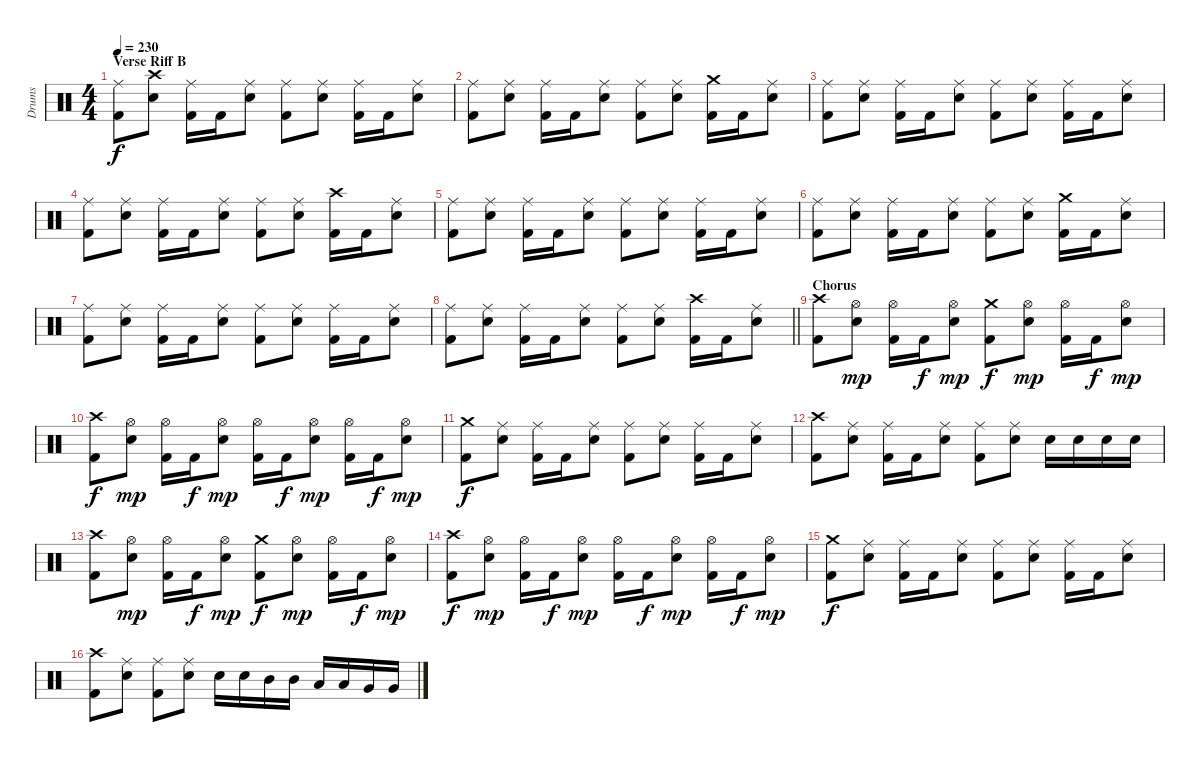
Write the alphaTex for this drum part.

\track ("Drums" "Drums") {instrument percussion}
\staff {score}
\articulation defaults
\ts (4 4)
\section ("" "Verse Riff B")
\tempo 230
\clef neutral
\ks c
("Ride (middle)" "Kick (hit) 2").8{dy f} ("Crash high (hit)" "Snare (hit) 2").8 ("Ride (middle)" "Kick (hit) 2").16 "Kick (hit) 2".16 ("Ride (middle)" "Snare (hit) 2").8 ("Ride (middle)" "Kick (hit) 2").8 ("Ride (middle)" "Snare (hit) 2").8 ("Ride (middle)" "Kick (hit) 2").16 "Kick (hit) 2".16 ("Ride (middle)" "Snare (hit) 2").8 |
("Ride (middle)" "Kick (hit) 2").8 ("Ride (middle)" "Snare (hit) 2").8 ("Ride (middle)" "Kick (hit) 2").16 "Kick (hit) 2".16 ("Ride (middle)" "Snare (hit) 2").8 ("Ride (middle)" "Kick (hit) 2").8 ("Ride (middle)" "Snare (hit) 2").8 ("Crash medium (hit)" "Kick (hit) 2").16 "Kick (hit) 2".16 ("Ride (middle)" "Snare (hit) 2").8 |
("Ride (middle)" "Kick (hit) 2").8 ("Ride (middle)" "Snare (hit) 2").8 ("Ride (middle)" "Kick (hit) 2").16 "Kick (hit) 2".16 ("Ride (middle)" "Snare (hit) 2").8 ("Ride (middle)" "Kick (hit) 2").8 ("Ride (middle)" "Snare (hit) 2").8 ("Ride (middle)" "Kick (hit) 2").16 "Kick (hit) 2".16 ("Ride (middle)" "Snare (hit) 2").8 |
("Ride (middle)" "Kick (hit) 2").8 ("Ride (middle)" "Snare (hit) 2").8 ("Ride (middle)" "Kick (hit) 2").16 "Kick (hit) 2".16 ("Ride (middle)" "Snare (hit) 2").8 ("Ride (middle)" "Kick (hit) 2").8 ("Ride (middle)" "Snare (hit) 2").8 ("Crash high (hit)" "Kick (hit) 2").16 "Kick (hit) 2".16 ("Ride (middle)" "Snare (hit) 2").8 |
("Ride (middle)" "Kick (hit) 2").8 ("Ride (middle)" "Snare (hit) 2").8 ("Ride (middle)" "Kick (hit) 2").16 "Kick (hit) 2".16 ("Ride (middle)" "Snare (hit) 2").8 ("Ride (middle)" "Kick (hit) 2").8 ("Ride (middle)" "Snare (hit) 2").8 ("Ride (middle)" "Kick (hit) 2").16 "Kick (hit) 2".16 ("Ride (middle)" "Snare (hit) 2").8 |
("Ride (middle)" "Kick (hit) 2").8 ("Ride (middle)" "Snare (hit) 2").8 ("Ride (middle)" "Kick (hit) 2").16 "Kick (hit) 2".16 ("Ride (middle)" "Snare (hit) 2").8 ("Ride (middle)" "Kick (hit) 2").8 ("Ride (middle)" "Snare (hit) 2").8 ("Crash medium (hit)" "Kick (hit) 2").16 "Kick (hit) 2".16 ("Ride (middle)" "Snare (hit) 2").8 |
("Ride (middle)" "Kick (hit) 2").8 ("Ride (middle)" "Snare (hit) 2").8 ("Ride (middle)" "Kick (hit) 2").16 "Kick (hit) 2".16 ("Ride (middle)" "Snare (hit) 2").8 ("Ride (middle)" "Kick (hit) 2").8 ("Ride (middle)" "Snare (hit) 2").8 ("Ride (middle)" "Kick (hit) 2").16 "Kick (hit) 2".16 ("Ride (middle)" "Snare (hit) 2").8 |
\barLineRight lightlight
("Ride (middle)" "Kick (hit) 2").8 ("Ride (middle)" "Snare (hit) 2").8 ("Ride (middle)" "Kick (hit) 2").16 "Kick (hit) 2".16 ("Ride (middle)" "Snare (hit) 2").8 ("Ride (middle)" "Kick (hit) 2").8 ("Ride (middle)" "Snare (hit) 2").8 ("Crash high (hit)" "Kick (hit) 2").16 "Kick (hit) 2".16 ("Ride (middle)" "Snare (hit) 2").8 |
\section ("" "Chorus")
("Crash high (hit)" "Kick (hit) 2").8 ("Hi-Hat (open)" "Snare (hit) 2").8{dy mp} ("Hi-Hat (open)" "Kick (hit) 2").16 "Kick (hit) 2".16{dy f} ("Hi-Hat (open)" "Snare (hit) 2").8{dy mp} ("Crash medium (hit)" "Kick (hit) 2").8{dy f} ("Hi-Hat (open)" "Snare (hit) 2").8{dy mp} ("Hi-Hat (open)" "Kick (hit) 2").16 "Kick (hit) 2".16{dy f} ("Hi-Hat (open)" "Snare (hit) 2").8{dy mp} |
("Crash high (hit)" "Kick (hit) 2").8{dy f} ("Hi-Hat (open)" "Snare (hit) 2").8{dy mp} ("Hi-Hat (open)" "Kick (hit) 2").16 "Kick (hit) 2".16{dy f} ("Hi-Hat (open)" "Snare (hit) 2").8{dy mp} ("Hi-Hat (open)" "Kick (hit) 2").16 "Kick (hit) 2".16{dy f} ("Hi-Hat (open)" "Snare (hit) 2").8{dy mp} ("Hi-Hat (open)" "Kick (hit) 2").16 "Kick (hit) 2".16{dy f} ("Hi-Hat (open)" "Snare (hit) 2").8{dy mp} |
("Crash medium (hit)" "Kick (hit) 2").8{dy f} ("Ride (middle)" "Snare (hit) 2").8 ("Ride (middle)" "Kick (hit) 2").16 "Kick (hit) 2".16 ("Ride (middle)" "Snare (hit) 2").8 ("Ride (middle)" "Kick (hit) 2").8 ("Ride (middle)" "Snare (hit) 2").8 ("Ride (middle)" "Kick (hit) 2").16 "Kick (hit) 2".16 ("Ride (middle)" "Snare (hit) 2").8 |
("Crash high (hit)" "Kick (hit) 2").8 ("Ride (middle)" "Snare (hit) 2").8 ("Ride (middle)" "Kick (hit) 2").16 "Kick (hit) 2".16 ("Ride (middle)" "Snare (hit) 2").8 ("Ride (middle)" "Kick (hit) 2").8 ("Ride (middle)" "Snare (hit) 2").8 "Snare (hit) 2".16 "Snare (hit) 2".16 "Snare (hit) 2".16 "Snare (hit) 2".16 |
("Crash high (hit)" "Kick (hit) 2").8 ("Hi-Hat (open)" "Snare (hit) 2").8{dy mp} ("Hi-Hat (open)" "Kick (hit) 2").16 "Kick (hit) 2".16{dy f} ("Hi-Hat (open)" "Snare (hit) 2").8{dy mp} ("Crash medium (hit)" "Kick (hit) 2").8{dy f} ("Hi-Hat (open)" "Snare (hit) 2").8{dy mp} ("Hi-Hat (open)" "Kick (hit) 2").16 "Kick (hit) 2".16{dy f} ("Hi-Hat (open)" "Snare (hit) 2").8{dy mp} |
("Crash high (hit)" "Kick (hit) 2").8{dy f} ("Hi-Hat (open)" "Snare (hit) 2").8{dy mp} ("Hi-Hat (open)" "Kick (hit) 2").16 "Kick (hit) 2".16{dy f} ("Hi-Hat (open)" "Snare (hit) 2").8{dy mp} ("Hi-Hat (open)" "Kick (hit) 2").16 "Kick (hit) 2".16{dy f} ("Hi-Hat (open)" "Snare (hit) 2").8{dy mp} ("Hi-Hat (open)" "Kick (hit) 2").16 "Kick (hit) 2".16{dy f} ("Hi-Hat (open)" "Snare (hit) 2").8{dy mp} |
("Crash medium (hit)" "Kick (hit) 2").8{dy f} ("Ride (middle)" "Snare (hit) 2").8 ("Ride (middle)" "Kick (hit) 2").16 "Kick (hit) 2".16 ("Ride (middle)" "Snare (hit) 2").8 ("Ride (middle)" "Kick (hit) 2").8 ("Ride (middle)" "Snare (hit) 2").8 ("Ride (middle)" "Kick (hit) 2").16 "Kick (hit) 2".16 ("Ride (middle)" "Snare (hit) 2").8 |
("Crash high (hit)" "Kick (hit) 2").8 ("Ride (middle)" "Snare (hit) 2").8 ("Ride (middle)" "Kick (hit) 2").8 ("Ride (middle)" "Snare (hit) 2").8 "Snare (hit) 2".16 "Snare (hit) 2".16 "Mid Tom (hit)".16 "Mid Tom (hit)".16 "Low Tom (hit)".16 "Low Tom (hit)".16 "Very Low Tom (hit)".16 "Very Low Tom (hit)".16
